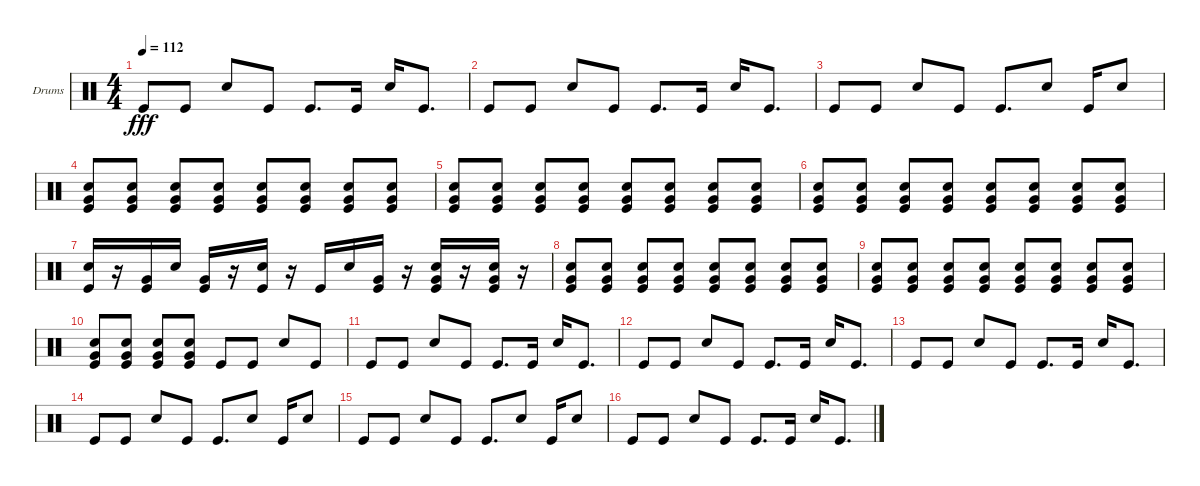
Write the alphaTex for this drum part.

\defaultSystemsLayout 4
\bracketExtendMode groupsimilarinstruments
\firstSystemTrackNameOrientation horizontal
\otherSystemsTrackNameOrientation horizontal
\track ("Helders" "Drums") {instrument percussion}
\staff {score}
\articulation defaults
\ts (4 4)
\tempo 112
\clef neutral
\ks c "Kick (hit)".8{dy fff} "Kick (hit)".8 "Snare (hit) 2".8 "Kick (hit)".8 "Kick (hit)".8{d} "Kick (hit)".16 "Snare (hit) 2".16 "Kick (hit)".8{d}
|
"Kick (hit)".8 "Kick (hit)".8 "Snare (hit) 2".8 "Kick (hit)".8 "Kick (hit)".8{d} "Kick (hit)".16 "Snare (hit) 2".16 "Kick (hit)".8{d} |
"Kick (hit)".8 "Kick (hit)".8 "Snare (hit) 2".8 "Kick (hit)".8 "Kick (hit)".8{d} "Snare (hit) 2".8 "Kick (hit)".16 "Snare (hit) 2".8 |
("Snare (hit) 2" "Kick (hit)" "Very Low Tom (hit)").8 ("Snare (hit) 2" "Kick (hit)" "Very Low Tom (hit)").8 ("Snare (hit) 2" "Kick (hit)" "Very Low Tom (hit)").8 ("Snare (hit) 2" "Kick (hit)" "Very Low Tom (hit)").8 ("Snare (hit) 2" "Kick (hit)" "Very Low Tom (hit)").8 ("Snare (hit) 2" "Kick (hit)" "Very Low Tom (hit)").8 ("Snare (hit) 2" "Kick (hit)" "Very Low Tom (hit)").8 ("Snare (hit) 2" "Kick (hit)" "Very Low Tom (hit)").8 |
("Snare (hit) 2" "Kick (hit)" "Very Low Tom (hit)").8 ("Snare (hit) 2" "Kick (hit)" "Very Low Tom (hit)").8 ("Snare (hit) 2" "Kick (hit)" "Very Low Tom (hit)").8 ("Snare (hit) 2" "Kick (hit)" "Very Low Tom (hit)").8 ("Snare (hit) 2" "Kick (hit)" "Very Low Tom (hit)").8 ("Snare (hit) 2" "Kick (hit)" "Very Low Tom (hit)").8 ("Snare (hit) 2" "Kick (hit)" "Very Low Tom (hit)").8 ("Snare (hit) 2" "Kick (hit)" "Very Low Tom (hit)").8 |
("Snare (hit) 2" "Kick (hit)" "Very Low Tom (hit)").8 ("Snare (hit) 2" "Kick (hit)" "Very Low Tom (hit)").8 ("Snare (hit) 2" "Kick (hit)" "Very Low Tom (hit)").8 ("Snare (hit) 2" "Kick (hit)" "Very Low Tom (hit)").8 ("Snare (hit) 2" "Kick (hit)" "Very Low Tom (hit)").8 ("Snare (hit) 2" "Kick (hit)" "Very Low Tom (hit)").8 ("Snare (hit) 2" "Kick (hit)" "Very Low Tom (hit)").8 ("Snare (hit) 2" "Kick (hit)" "Very Low Tom (hit)").8 |
("Snare (hit) 2" "Kick (hit)").16 r.16 ("Very Low Tom (hit)" "Kick (hit)").16 "Snare (hit) 2".16 ("Very Low Tom (hit)" "Kick (hit)").16 r.16 ("Snare (hit) 2" "Kick (hit)").16 r.16 "Kick (hit)".16 "Snare (hit) 2".16 ("Very Low Tom (hit)" "Kick (hit)").16 r.16 ("Snare (hit) 2" "Very Low Tom (hit)" "Kick (hit)").16 r.16 ("Snare (hit) 2" "Very Low Tom (hit)" "Kick (hit)").16 r.16 |
("Snare (hit) 2" "Kick (hit)" "Very Low Tom (hit)").8 ("Snare (hit) 2" "Kick (hit)" "Very Low Tom (hit)").8 ("Snare (hit) 2" "Kick (hit)" "Very Low Tom (hit)").8 ("Snare (hit) 2" "Kick (hit)" "Very Low Tom (hit)").8 ("Snare (hit) 2" "Kick (hit)" "Very Low Tom (hit)").8 ("Snare (hit) 2" "Kick (hit)" "Very Low Tom (hit)").8 ("Snare (hit) 2" "Kick (hit)" "Very Low Tom (hit)").8 ("Snare (hit) 2" "Kick (hit)" "Very Low Tom (hit)").8 |
("Snare (hit) 2" "Kick (hit)" "Very Low Tom (hit)").8 ("Snare (hit) 2" "Kick (hit)" "Very Low Tom (hit)").8 ("Snare (hit) 2" "Kick (hit)" "Very Low Tom (hit)").8 ("Snare (hit) 2" "Kick (hit)" "Very Low Tom (hit)").8 ("Snare (hit) 2" "Kick (hit)" "Very Low Tom (hit)").8 ("Snare (hit) 2" "Kick (hit)" "Very Low Tom (hit)").8 ("Snare (hit) 2" "Kick (hit)" "Very Low Tom (hit)").8 ("Snare (hit) 2" "Kick (hit)" "Very Low Tom (hit)").8 |
("Snare (hit) 2" "Kick (hit)" "Very Low Tom (hit)").8 ("Snare (hit) 2" "Kick (hit)" "Very Low Tom (hit)").8 ("Snare (hit) 2" "Kick (hit)" "Very Low Tom (hit)").8 ("Snare (hit) 2" "Kick (hit)" "Very Low Tom (hit)").8 "Kick (hit)".8 "Kick (hit)".8 "Snare (hit) 2".8 "Kick (hit)".8 |
"Kick (hit)".8 "Kick (hit)".8 "Snare (hit) 2".8 "Kick (hit)".8 "Kick (hit)".8{d} "Kick (hit)".16 "Snare (hit) 2".16 "Kick (hit)".8{d} |
"Kick (hit)".8 "Kick (hit)".8 "Snare (hit) 2".8 "Kick (hit)".8 "Kick (hit)".8{d} "Kick (hit)".16 "Snare (hit) 2".16 "Kick (hit)".8{d} |
"Kick (hit)".8 "Kick (hit)".8 "Snare (hit) 2".8 "Kick (hit)".8 "Kick (hit)".8{d} "Kick (hit)".16 "Snare (hit) 2".16 "Kick (hit)".8{d} |
"Kick (hit)".8 "Kick (hit)".8 "Snare (hit) 2".8 "Kick (hit)".8 "Kick (hit)".8{d} "Snare (hit) 2".8 "Kick (hit)".16 "Snare (hit) 2".8 |
"Kick (hit)".8 "Kick (hit)".8 "Snare (hit) 2".8 "Kick (hit)".8 "Kick (hit)".8{d} "Snare (hit) 2".8 "Kick (hit)".16 "Snare (hit) 2".8 |
"Kick (hit)".8 "Kick (hit)".8 "Snare (hit) 2".8 "Kick (hit)".8 "Kick (hit)".8{d} "Kick (hit)".16 "Snare (hit) 2".16 "Kick (hit)".8{d}
